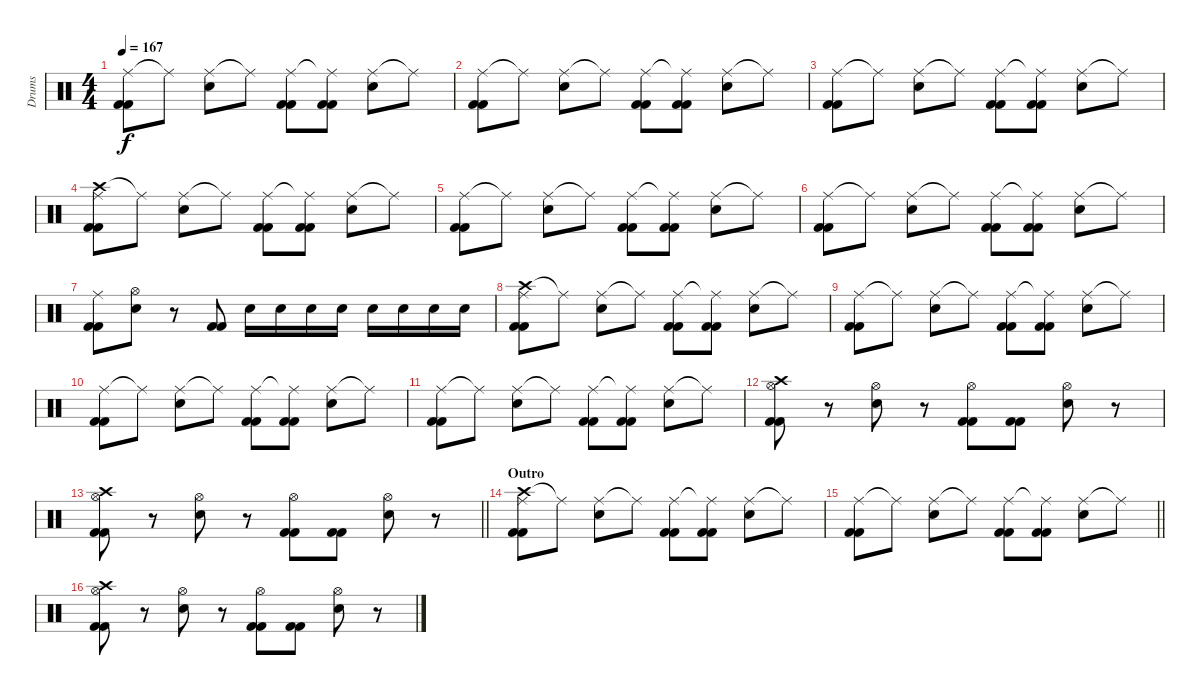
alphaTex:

\track ("Drums" "Drums") {instrument percussion}
\staff {score}
\articulation defaults
\ts (4 4)
\tempo 167
\clef neutral
\ks c
("Ride (middle)" "Kick (hit) 2" "Kick (hit) 2").8{dy f} "Ride (middle)"{t}.8 ("Ride (middle)" "Electric Snare (hit)").8 "Ride (middle)"{t}.8 ("Ride (middle)" "Kick (hit) 2" "Kick (hit) 2").8 ("Ride (middle)"{t} "Kick (hit) 2" "Kick (hit) 2").8 ("Ride (middle)" "Electric Snare (hit)").8 "Ride (middle)"{t}.8 |
("Ride (middle)" "Kick (hit) 2" "Kick (hit) 2").8 "Ride (middle)"{t}.8 ("Ride (middle)" "Electric Snare (hit)").8 "Ride (middle)"{t}.8 ("Ride (middle)" "Kick (hit) 2" "Kick (hit) 2").8 ("Ride (middle)"{t} "Kick (hit) 2" "Kick (hit) 2").8 ("Ride (middle)" "Electric Snare (hit)").8 "Ride (middle)"{t}.8 |
("Ride (middle)" "Kick (hit) 2" "Kick (hit) 2").8 "Ride (middle)"{t}.8 ("Ride (middle)" "Electric Snare (hit)").8 "Ride (middle)"{t}.8 ("Ride (middle)" "Kick (hit) 2" "Kick (hit) 2").8 ("Ride (middle)"{t} "Kick (hit) 2" "Kick (hit) 2").8 ("Ride (middle)" "Electric Snare (hit)").8 "Ride (middle)"{t}.8 |
("Crash high (hit)" "Ride (middle)" "Kick (hit) 2" "Kick (hit) 2").8 "Ride (middle)"{t}.8 ("Ride (middle)" "Electric Snare (hit)").8 "Ride (middle)"{t}.8 ("Ride (middle)" "Kick (hit) 2" "Kick (hit) 2").8 ("Ride (middle)"{t} "Kick (hit) 2" "Kick (hit) 2").8 ("Ride (middle)" "Electric Snare (hit)").8 "Ride (middle)"{t}.8 |
("Ride (middle)" "Kick (hit) 2" "Kick (hit) 2").8 "Ride (middle)"{t}.8 ("Ride (middle)" "Electric Snare (hit)").8 "Ride (middle)"{t}.8 ("Ride (middle)" "Kick (hit) 2" "Kick (hit) 2").8 ("Ride (middle)"{t} "Kick (hit) 2" "Kick (hit) 2").8 ("Ride (middle)" "Electric Snare (hit)").8 "Ride (middle)"{t}.8 |
("Ride (middle)" "Kick (hit) 2" "Kick (hit) 2").8 "Ride (middle)"{t}.8 ("Ride (middle)" "Electric Snare (hit)").8 "Ride (middle)"{t}.8 ("Ride (middle)" "Kick (hit) 2" "Kick (hit) 2").8 ("Ride (middle)"{t} "Kick (hit) 2" "Kick (hit) 2").8 ("Ride (middle)" "Electric Snare (hit)").8 "Ride (middle)"{t}.8 |
("Ride (middle)" "Kick (hit) 2" "Kick (hit) 2").8 ("Hi-Hat (open)" "Electric Snare (hit)").8 r.8 ("Kick (hit) 2" "Kick (hit) 2").8 "Electric Snare (hit)".16 "Electric Snare (hit)".16 "Electric Snare (hit)".16 "Electric Snare (hit)".16 "Electric Snare (hit)".16 "Electric Snare (hit)".16 "Electric Snare (hit)".16 "Electric Snare (hit)".16 |
("Crash high (hit)" "Ride (middle)" "Kick (hit) 2" "Kick (hit) 2").8 "Ride (middle)"{t}.8 ("Ride (middle)" "Electric Snare (hit)").8 "Ride (middle)"{t}.8 ("Ride (middle)" "Kick (hit) 2" "Kick (hit) 2").8 ("Ride (middle)"{t} "Kick (hit) 2" "Kick (hit) 2").8 ("Ride (middle)" "Electric Snare (hit)").8 "Ride (middle)"{t}.8 |
("Ride (middle)" "Kick (hit) 2" "Kick (hit) 2").8 "Ride (middle)"{t}.8 ("Ride (middle)" "Electric Snare (hit)").8 "Ride (middle)"{t}.8 ("Ride (middle)" "Kick (hit) 2" "Kick (hit) 2").8 ("Ride (middle)"{t} "Kick (hit) 2" "Kick (hit) 2").8 ("Ride (middle)" "Electric Snare (hit)").8 "Ride (middle)"{t}.8 |
("Ride (middle)" "Kick (hit) 2" "Kick (hit) 2").8 "Ride (middle)"{t}.8 ("Ride (middle)" "Electric Snare (hit)").8 "Ride (middle)"{t}.8 ("Ride (middle)" "Kick (hit) 2" "Kick (hit) 2").8 ("Ride (middle)"{t} "Kick (hit) 2" "Kick (hit) 2").8 ("Ride (middle)" "Electric Snare (hit)").8 "Ride (middle)"{t}.8 |
("Ride (middle)" "Kick (hit) 2" "Kick (hit) 2").8 "Ride (middle)"{t}.8 ("Ride (middle)" "Electric Snare (hit)").8 "Ride (middle)"{t}.8 ("Ride (middle)" "Kick (hit) 2" "Kick (hit) 2").8 ("Ride (middle)"{t} "Kick (hit) 2" "Kick (hit) 2").8 ("Ride (middle)" "Electric Snare (hit)").8 "Ride (middle)"{t}.8 |
("Crash high (hit)" "Hi-Hat (open)" "Kick (hit) 2" "Kick (hit) 2").8 r.8 ("Hi-Hat (open)" "Electric Snare (hit)").8 r.8 ("Hi-Hat (open)" "Kick (hit) 2" "Kick (hit) 2").8 ("Kick (hit) 2" "Kick (hit) 2").8 ("Hi-Hat (open)" "Electric Snare (hit)").8 r.8 |
\barLineRight lightlight
("Crash high (hit)" "Hi-Hat (open)" "Kick (hit) 2" "Kick (hit) 2").8 r.8 ("Hi-Hat (open)" "Electric Snare (hit)").8 r.8 ("Hi-Hat (open)" "Kick (hit) 2" "Kick (hit) 2").8 ("Kick (hit) 2" "Kick (hit) 2").8 ("Hi-Hat (open)" "Electric Snare (hit)").8 r.8 |
\section ("" "Outro")
("Crash high (hit)" "Ride (middle)" "Kick (hit) 2" "Kick (hit) 2").8 "Ride (middle)"{t}.8 ("Ride (middle)" "Electric Snare (hit)").8 "Ride (middle)"{t}.8 ("Ride (middle)" "Kick (hit) 2" "Kick (hit) 2").8 ("Ride (middle)"{t} "Kick (hit) 2" "Kick (hit) 2").8 ("Ride (middle)" "Electric Snare (hit)").8 "Ride (middle)"{t}.8 |
\barLineRight lightlight
("Ride (middle)" "Kick (hit) 2" "Kick (hit) 2").8 "Ride (middle)"{t}.8 ("Ride (middle)" "Electric Snare (hit)").8 "Ride (middle)"{t}.8 ("Ride (middle)" "Kick (hit) 2" "Kick (hit) 2").8 ("Ride (middle)"{t} "Kick (hit) 2" "Kick (hit) 2").8 ("Ride (middle)" "Electric Snare (hit)").8 "Ride (middle)"{t}.8 |
("Crash high (hit)" "Hi-Hat (open)" "Kick (hit) 2" "Kick (hit) 2").8 r.8 ("Hi-Hat (open)" "Electric Snare (hit)").8 r.8 ("Hi-Hat (open)" "Kick (hit) 2" "Kick (hit) 2").8 ("Kick (hit) 2" "Kick (hit) 2").8 ("Hi-Hat (open)" "Electric Snare (hit)").8 r.8
